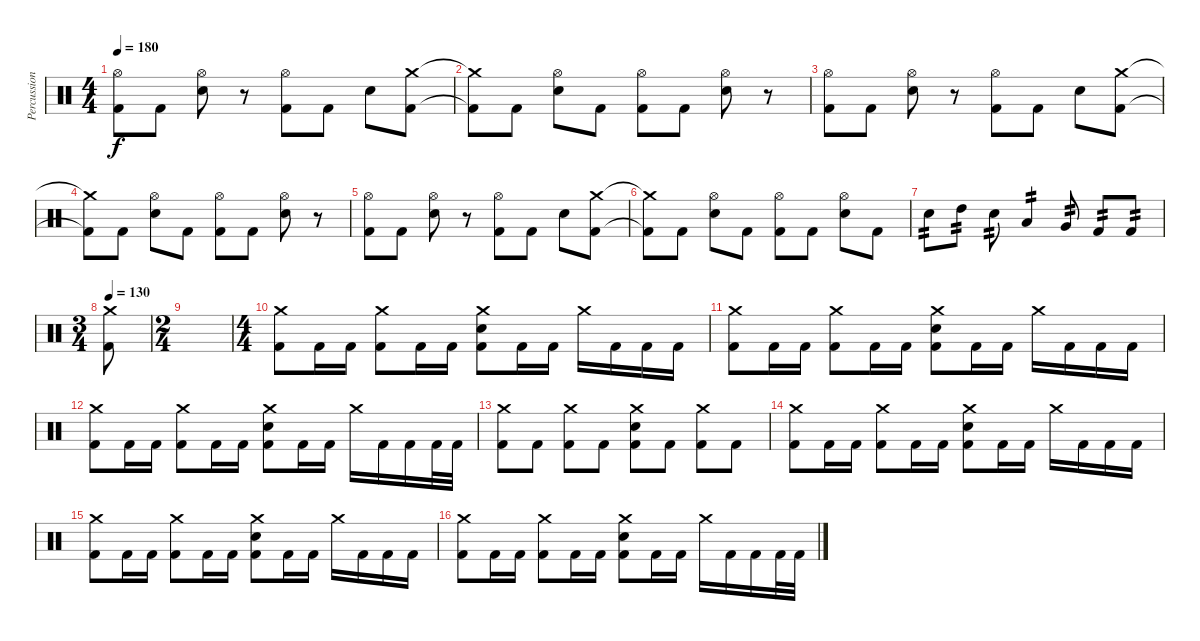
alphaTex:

\track ("Percussion" "Percussion") {instrument percussion}
\staff {score}
\articulation defaults
\ts (4 4)
\tempo 180
\clef neutral
\ks c
("Hi-Hat (open)" "Kick (hit) 2").8{dy f} "Kick (hit) 2".8 ("Hi-Hat (open)" "Electric Snare (hit)").8 r.8 ("Hi-Hat (open)" "Kick (hit) 2").8 "Kick (hit) 2".8 "Electric Snare (hit)".8 ("Crash medium (hit)" "Kick (hit) 2").8 |
("Crash medium (hit)"{t} "Kick (hit) 2"{t}).8 "Kick (hit) 2".8 ("Hi-Hat (open)" "Electric Snare (hit)").8 "Kick (hit) 2".8 ("Hi-Hat (open)" "Kick (hit) 2").8 "Kick (hit) 2".8 ("Hi-Hat (open)" "Electric Snare (hit)").8 r.8 |
("Hi-Hat (open)" "Kick (hit) 2").8 "Kick (hit) 2".8 ("Hi-Hat (open)" "Electric Snare (hit)").8 r.8 ("Hi-Hat (open)" "Kick (hit) 2").8 "Kick (hit) 2".8 "Electric Snare (hit)".8 ("Crash medium (hit)" "Kick (hit) 2").8 |
("Crash medium (hit)"{t} "Kick (hit) 2"{t}).8 "Kick (hit) 2".8 ("Hi-Hat (open)" "Electric Snare (hit)").8 "Kick (hit) 2".8 ("Hi-Hat (open)" "Kick (hit) 2").8 "Kick (hit) 2".8 ("Hi-Hat (open)" "Electric Snare (hit)").8 r.8 |
("Hi-Hat (open)" "Kick (hit) 2").8 "Kick (hit) 2".8 ("Hi-Hat (open)" "Electric Snare (hit)").8 r.8 ("Hi-Hat (open)" "Kick (hit) 2").8 "Kick (hit) 2".8 "Electric Snare (hit)".8 ("Crash medium (hit)" "Kick (hit) 2").8 |
("Crash medium (hit)"{t} "Kick (hit) 2"{t}).8 "Kick (hit) 2".8 ("Hi-Hat (open)" "Electric Snare (hit)").8 "Kick (hit) 2".8 ("Hi-Hat (open)" "Kick (hit) 2").8 "Kick (hit) 2".8 ("Hi-Hat (open)" "Electric Snare (hit)").8 "Kick (hit) 2".8 |
"Electric Snare (hit)".8{tp 2} "High Tom (hit)".8{tp 2} "Electric Snare (hit)".8{tp 2} "Low Tom (hit)".4{tp 2} "Very Low Tom (hit)".8{tp 2} "Kick (hit) 2".8{tp 2} "Kick (hit) 2".8{tp 2} |
\ts (3 4)
\tempo 130
("Crash medium (hit)" "Kick (hit) 2").8 |
\ts (2 4)
|
\ts (4 4)
("Crash medium (hit)" "Kick (hit) 2").8 "Kick (hit) 2".16 "Kick (hit) 2".16 ("Crash medium (hit)" "Kick (hit) 2").8 "Kick (hit) 2".16 "Kick (hit) 2".16 ("Crash medium (hit)" "Electric Snare (hit)" "Kick (hit) 2").8 "Kick (hit) 2".16 "Kick (hit) 2".16 "Crash medium (hit)".16 "Kick (hit) 2".16 "Kick (hit) 2".16 "Kick (hit) 2".16 |
("Crash medium (hit)" "Kick (hit) 2").8 "Kick (hit) 2".16 "Kick (hit) 2".16 ("Crash medium (hit)" "Kick (hit) 2").8 "Kick (hit) 2".16 "Kick (hit) 2".16 ("Crash medium (hit)" "Electric Snare (hit)" "Kick (hit) 2").8 "Kick (hit) 2".16 "Kick (hit) 2".16 "Crash medium (hit)".16 "Kick (hit) 2".16 "Kick (hit) 2".16 "Kick (hit) 2".16 |
("Crash medium (hit)" "Kick (hit) 2").8 "Kick (hit) 2".16 "Kick (hit) 2".16 ("Crash medium (hit)" "Kick (hit) 2").8 "Kick (hit) 2".16 "Kick (hit) 2".16 ("Crash medium (hit)" "Electric Snare (hit)" "Kick (hit) 2").8 "Kick (hit) 2".16 "Kick (hit) 2".16 "Crash medium (hit)".16 "Kick (hit) 2".16 "Kick (hit) 2".16 "Kick (hit) 2".32 "Kick (hit) 2".32 |
("Crash medium (hit)" "Kick (hit) 2").8 "Kick (hit) 2".8 ("Crash medium (hit)" "Kick (hit) 2").8 "Kick (hit) 2".8 ("Crash medium (hit)" "Electric Snare (hit)" "Kick (hit) 2").8 "Kick (hit) 2".8 ("Crash medium (hit)" "Kick (hit) 2").8 "Kick (hit) 2".8 |
("Crash medium (hit)" "Kick (hit) 2").8 "Kick (hit) 2".16 "Kick (hit) 2".16 ("Crash medium (hit)" "Kick (hit) 2").8 "Kick (hit) 2".16 "Kick (hit) 2".16 ("Crash medium (hit)" "Electric Snare (hit)" "Kick (hit) 2").8 "Kick (hit) 2".16 "Kick (hit) 2".16 "Crash medium (hit)".16 "Kick (hit) 2".16 "Kick (hit) 2".16 "Kick (hit) 2".16 |
("Crash medium (hit)" "Kick (hit) 2").8 "Kick (hit) 2".16 "Kick (hit) 2".16 ("Crash medium (hit)" "Kick (hit) 2").8 "Kick (hit) 2".16 "Kick (hit) 2".16 ("Crash medium (hit)" "Electric Snare (hit)" "Kick (hit) 2").8 "Kick (hit) 2".16 "Kick (hit) 2".16 "Crash medium (hit)".16 "Kick (hit) 2".16 "Kick (hit) 2".16 "Kick (hit) 2".16 |
("Crash medium (hit)" "Kick (hit) 2").8 "Kick (hit) 2".16 "Kick (hit) 2".16 ("Crash medium (hit)" "Kick (hit) 2").8 "Kick (hit) 2".16 "Kick (hit) 2".16 ("Crash medium (hit)" "Electric Snare (hit)" "Kick (hit) 2").8 "Kick (hit) 2".16 "Kick (hit) 2".16 "Crash medium (hit)".16 "Kick (hit) 2".16 "Kick (hit) 2".16 "Kick (hit) 2".32 "Kick (hit) 2".32
